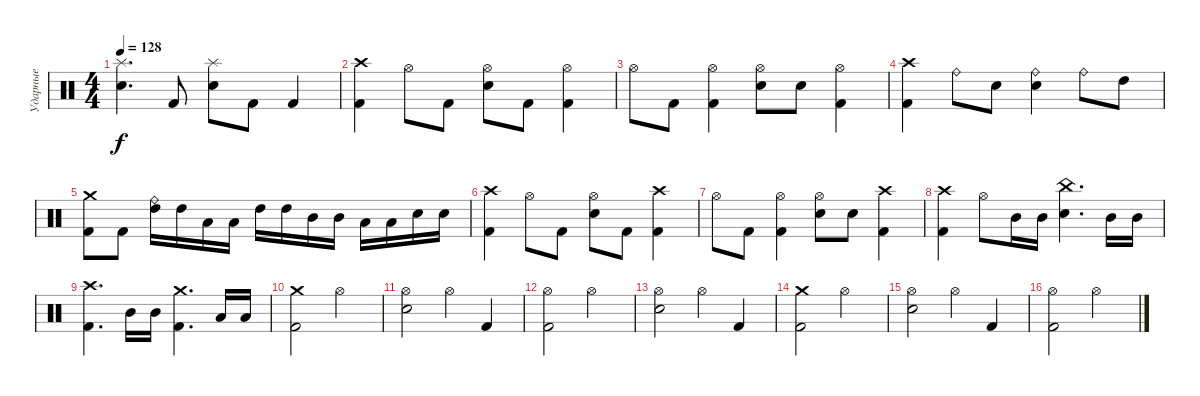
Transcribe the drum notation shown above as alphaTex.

\track ("Ударные" "Ударные") {instrument percussion}
\staff {score}
\articulation defaults
\ts (4 4)
\tempo 128
\clef neutral
\ks c
("Splash (hit)" "Snare (hit) 2").4{d dy f} "Kick (hit) 2".8 ("Splash (hit)" "Snare (hit) 2").8 "Kick (hit) 2".8 "Kick (hit) 2".4 |
("Crash high (hit)" "Kick (hit) 2").4 "Hi-Hat (open)".8 "Kick (hit) 2".8 ("Hi-Hat (open)" "Snare (hit) 2").8 "Kick (hit) 2".8 ("Hi-Hat (open)" "Kick (hit) 2").4 |
"Hi-Hat (open)".8 "Kick (hit) 2".8 ("Hi-Hat (open)" "Kick (hit) 2").4 ("Hi-Hat (open)" "Snare (hit) 2").8 "Snare (hit) 2".8 ("Hi-Hat (open)" "Kick (hit) 2").4 |
("Crash high (hit)" "Kick (hit) 2").4 "Ride (bell)".8 "Snare (hit) 2".8 ("Ride (bell)" "Snare (hit) 2").4 "Ride (bell)".8 "High Tom (hit)".8 |
("Crash medium (hit)" "Kick (hit) 2").8 "Kick (hit) 2".8 ("Ride (bell)" "High Tom (hit)").16 "High Tom (hit)".16 "Low Tom (hit)".16 "Low Tom (hit)".16 "High Tom (hit)".16 "High Tom (hit)".16 "Mid Tom (hit)".16 "Mid Tom (hit)".16 "Low Tom (hit)".16 "Low Tom (hit)".16 "Snare (hit) 2".16 "Snare (hit) 2".16 |
("Crash high (hit)" "Kick (hit) 2").4 "Hi-Hat (open)".8 "Kick (hit) 2".8 ("Hi-Hat (open)" "Snare (hit) 2").8 "Kick (hit) 2".8 ("Crash high (hit)" "Kick (hit) 2").4 |
"Hi-Hat (open)".8 "Kick (hit) 2".8 ("Hi-Hat (open)" "Kick (hit) 2").4 ("Hi-Hat (open)" "Snare (hit) 2").8 "Snare (hit) 2".8 ("Crash high (hit)" "Kick (hit) 2").4 |
("Crash high (hit)" "Kick (hit) 2").4 "Hi-Hat (open)".8 "Mid Tom (hit)".16 "Mid Tom (hit)".16 ("China (hit)" "Snare (hit) 2").4{d} "Mid Tom (hit)".16 "Mid Tom (hit)".16 |
("Crash high (hit)" "Kick (hit) 2").4{d} "Mid Tom (hit)".16 "Mid Tom (hit)".16 ("Crash medium (hit)" "Kick (hit) 2").4{d} "Low Tom (hit)".16 "Low Tom (hit)".16 |
("Crash medium (hit)" "Kick (hit) 2").2 "Hi-Hat (open)".2 |
("Hi-Hat (open)" "Snare (hit) 2").2 "Hi-Hat (open)".4 "Kick (hit) 2".4 |
("Hi-Hat (open)" "Kick (hit) 2").2 "Hi-Hat (open)".2 |
("Hi-Hat (open)" "Snare (hit) 2").2 "Hi-Hat (open)".4 "Kick (hit) 2".4 |
("Crash medium (hit)" "Kick (hit) 2").2 "Hi-Hat (open)".2 |
("Hi-Hat (open)" "Snare (hit) 2").2 "Hi-Hat (open)".4 "Kick (hit) 2".4 |
("Hi-Hat (open)" "Kick (hit) 2").2 "Hi-Hat (open)".2
